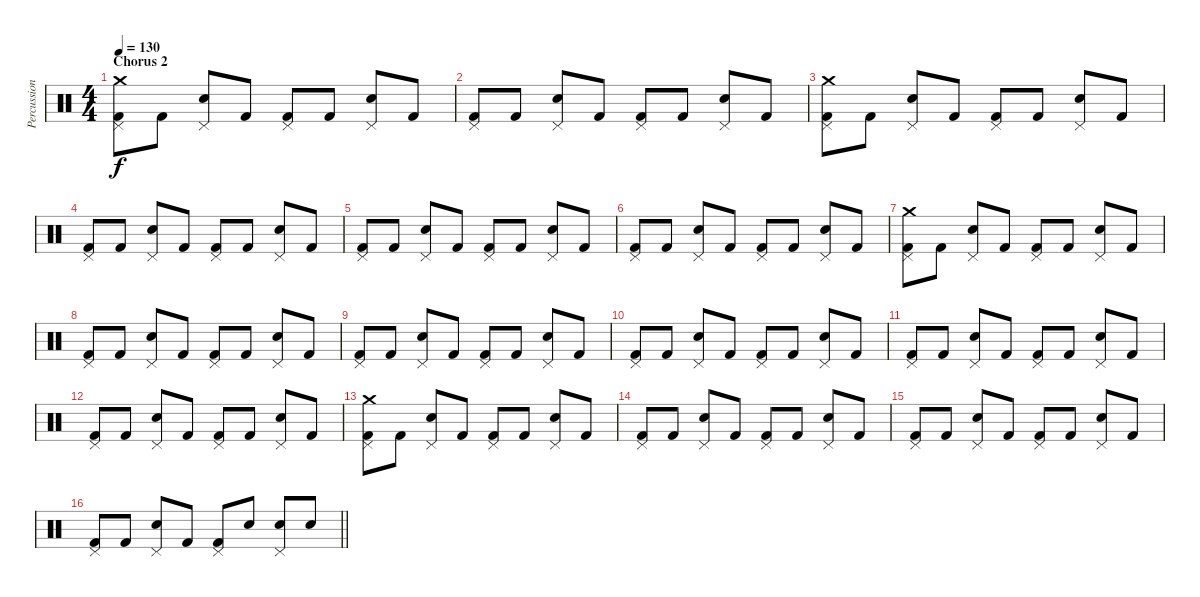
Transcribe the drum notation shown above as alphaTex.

\track ("Percussions" "Percussion") {instrument percussion}
\staff {score}
\articulation defaults
\ts (4 4)
\section ("" "Chorus 2")
\tempo 130
\clef neutral
\ks c
("Crash medium (hit)" "Pedal Hi-Hat (hit)" "Kick (hit) 2").8{dy f} "Kick (hit) 2".8 ("Pedal Hi-Hat (hit)" "Snare (hit) 2").8 "Kick (hit) 2".8 ("Pedal Hi-Hat (hit)" "Kick (hit) 2").8 "Kick (hit) 2".8 ("Pedal Hi-Hat (hit)" "Snare (hit) 2").8 "Kick (hit) 2".8 |
("Pedal Hi-Hat (hit)" "Kick (hit) 2").8 "Kick (hit) 2".8 ("Pedal Hi-Hat (hit)" "Snare (hit) 2").8 "Kick (hit) 2".8 ("Pedal Hi-Hat (hit)" "Kick (hit) 2").8 "Kick (hit) 2".8 ("Pedal Hi-Hat (hit)" "Snare (hit) 2").8 "Kick (hit) 2".8 |
("Crash medium (hit)" "Pedal Hi-Hat (hit)" "Kick (hit) 2").8 "Kick (hit) 2".8 ("Pedal Hi-Hat (hit)" "Snare (hit) 2").8 "Kick (hit) 2".8 ("Pedal Hi-Hat (hit)" "Kick (hit) 2").8 "Kick (hit) 2".8 ("Pedal Hi-Hat (hit)" "Snare (hit) 2").8 "Kick (hit) 2".8 |
("Pedal Hi-Hat (hit)" "Kick (hit) 2").8 "Kick (hit) 2".8 ("Pedal Hi-Hat (hit)" "Snare (hit) 2").8 "Kick (hit) 2".8 ("Pedal Hi-Hat (hit)" "Kick (hit) 2").8 "Kick (hit) 2".8 ("Pedal Hi-Hat (hit)" "Snare (hit) 2").8 "Kick (hit) 2".8 |
("Pedal Hi-Hat (hit)" "Kick (hit) 2").8 "Kick (hit) 2".8 ("Pedal Hi-Hat (hit)" "Snare (hit) 2").8 "Kick (hit) 2".8 ("Pedal Hi-Hat (hit)" "Kick (hit) 2").8 "Kick (hit) 2".8 ("Pedal Hi-Hat (hit)" "Snare (hit) 2").8 "Kick (hit) 2".8 |
("Pedal Hi-Hat (hit)" "Kick (hit) 2").8 "Kick (hit) 2".8 ("Pedal Hi-Hat (hit)" "Snare (hit) 2").8 "Kick (hit) 2".8 ("Pedal Hi-Hat (hit)" "Kick (hit) 2").8 "Kick (hit) 2".8 ("Pedal Hi-Hat (hit)" "Snare (hit) 2").8 "Kick (hit) 2".8 |
("Crash medium (hit)" "Pedal Hi-Hat (hit)" "Kick (hit) 2").8 "Kick (hit) 2".8 ("Pedal Hi-Hat (hit)" "Snare (hit) 2").8 "Kick (hit) 2".8 ("Pedal Hi-Hat (hit)" "Kick (hit) 2").8 "Kick (hit) 2".8 ("Pedal Hi-Hat (hit)" "Snare (hit) 2").8 "Kick (hit) 2".8 |
("Pedal Hi-Hat (hit)" "Kick (hit) 2").8 "Kick (hit) 2".8 ("Pedal Hi-Hat (hit)" "Snare (hit) 2").8 "Kick (hit) 2".8 ("Pedal Hi-Hat (hit)" "Kick (hit) 2").8 "Kick (hit) 2".8 ("Pedal Hi-Hat (hit)" "Snare (hit) 2").8 "Kick (hit) 2".8 |
("Pedal Hi-Hat (hit)" "Kick (hit) 2").8 "Kick (hit) 2".8 ("Pedal Hi-Hat (hit)" "Snare (hit) 2").8 "Kick (hit) 2".8 ("Pedal Hi-Hat (hit)" "Kick (hit) 2").8 "Kick (hit) 2".8 ("Pedal Hi-Hat (hit)" "Snare (hit) 2").8 "Kick (hit) 2".8 |
("Pedal Hi-Hat (hit)" "Kick (hit) 2").8 "Kick (hit) 2".8 ("Pedal Hi-Hat (hit)" "Snare (hit) 2").8 "Kick (hit) 2".8 ("Pedal Hi-Hat (hit)" "Kick (hit) 2").8 "Kick (hit) 2".8 ("Pedal Hi-Hat (hit)" "Snare (hit) 2").8 "Kick (hit) 2".8 |
("Pedal Hi-Hat (hit)" "Kick (hit) 2").8 "Kick (hit) 2".8 ("Pedal Hi-Hat (hit)" "Snare (hit) 2").8 "Kick (hit) 2".8 ("Pedal Hi-Hat (hit)" "Kick (hit) 2").8 "Kick (hit) 2".8 ("Pedal Hi-Hat (hit)" "Snare (hit) 2").8 "Kick (hit) 2".8 |
("Pedal Hi-Hat (hit)" "Kick (hit) 2").8 "Kick (hit) 2".8 ("Pedal Hi-Hat (hit)" "Snare (hit) 2").8 "Kick (hit) 2".8 ("Pedal Hi-Hat (hit)" "Kick (hit) 2").8 "Kick (hit) 2".8 ("Pedal Hi-Hat (hit)" "Snare (hit) 2").8 "Kick (hit) 2".8 |
("Crash medium (hit)" "Pedal Hi-Hat (hit)" "Kick (hit) 2").8 "Kick (hit) 2".8 ("Pedal Hi-Hat (hit)" "Snare (hit) 2").8 "Kick (hit) 2".8 ("Pedal Hi-Hat (hit)" "Kick (hit) 2").8 "Kick (hit) 2".8 ("Pedal Hi-Hat (hit)" "Snare (hit) 2").8 "Kick (hit) 2".8 |
("Pedal Hi-Hat (hit)" "Kick (hit) 2").8 "Kick (hit) 2".8 ("Pedal Hi-Hat (hit)" "Snare (hit) 2").8 "Kick (hit) 2".8 ("Pedal Hi-Hat (hit)" "Kick (hit) 2").8 "Kick (hit) 2".8 ("Pedal Hi-Hat (hit)" "Snare (hit) 2").8 "Kick (hit) 2".8 |
("Pedal Hi-Hat (hit)" "Kick (hit) 2").8 "Kick (hit) 2".8 ("Pedal Hi-Hat (hit)" "Snare (hit) 2").8 "Kick (hit) 2".8 ("Pedal Hi-Hat (hit)" "Kick (hit) 2").8 "Kick (hit) 2".8 ("Pedal Hi-Hat (hit)" "Snare (hit) 2").8 "Kick (hit) 2".8 |
\barLineRight lightlight
("Pedal Hi-Hat (hit)" "Kick (hit) 2").8 "Kick (hit) 2".8 ("Pedal Hi-Hat (hit)" "Snare (hit) 2").8 "Kick (hit) 2".8 ("Pedal Hi-Hat (hit)" "Kick (hit) 2").8 "Snare (hit) 2".8 ("Pedal Hi-Hat (hit)" "Snare (hit) 2").8 "Snare (hit) 2".8
